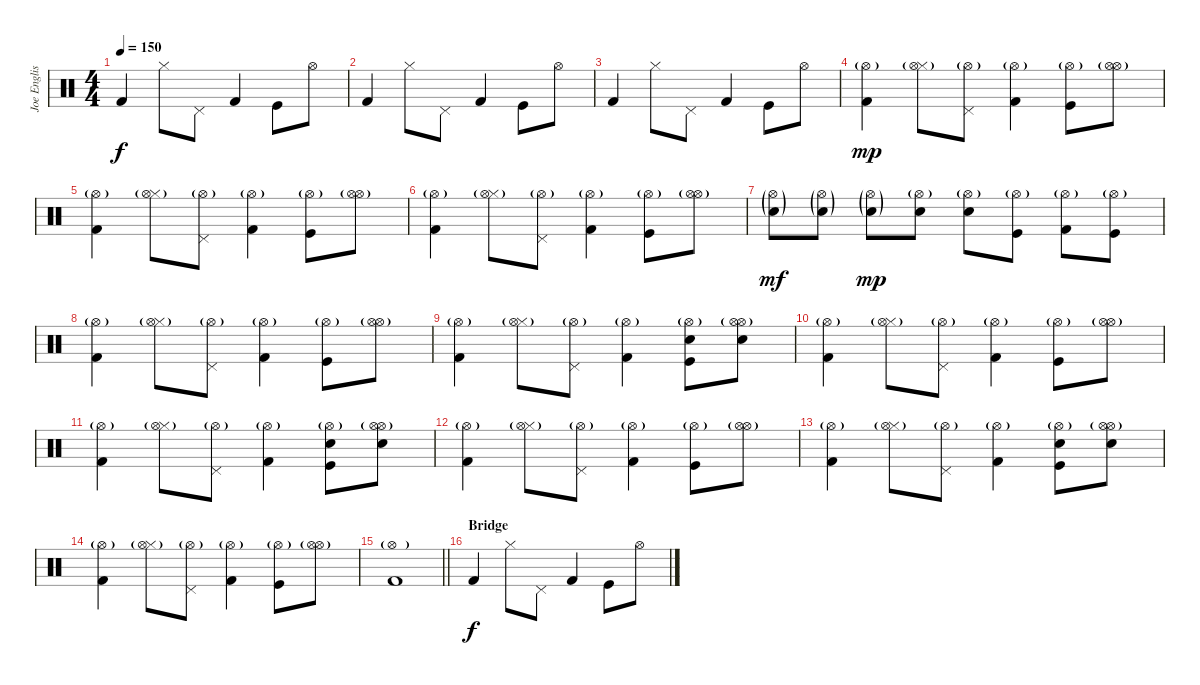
\track ("Joe English" "Joe Englis") {instrument percussion}
\staff {score}
\articulation defaults
\ts (4 4)
\tempo 150
\clef neutral
\ks c "Kick (hit) 2".4{dy f} "Hi-Hat (closed)".8 "Pedal Hi-Hat (hit)".8 "Kick (hit) 2".4 "Kick (hit)".8 "Hi-Hat (open)".8
|
"Kick (hit) 2".4 "Hi-Hat (closed)".8 "Pedal Hi-Hat (hit)".8 "Kick (hit) 2".4 "Kick (hit)".8 "Hi-Hat (open)".8 |
"Kick (hit) 2".4 "Hi-Hat (closed)".8 "Pedal Hi-Hat (hit)".8 "Kick (hit) 2".4 "Kick (hit)".8 "Hi-Hat (open)".8 |
("Kick (hit) 2" "Hi-Hat (open)"{g}).4{dy mp} ("Hi-Hat (closed)" "Hi-Hat (open)"{g}).8 ("Pedal Hi-Hat (hit)" "Hi-Hat (open)"{g}).8 ("Kick (hit) 2" "Hi-Hat (open)"{g}).4 ("Kick (hit)" "Hi-Hat (open)"{g}).8 ("Hi-Hat (open)" "Hi-Hat (open)"{g}).8 |
("Kick (hit) 2" "Hi-Hat (open)"{g}).4 ("Hi-Hat (closed)" "Hi-Hat (open)"{g}).8 ("Pedal Hi-Hat (hit)" "Hi-Hat (open)"{g}).8 ("Kick (hit) 2" "Hi-Hat (open)"{g}).4 ("Kick (hit)" "Hi-Hat (open)"{g}).8 ("Hi-Hat (open)" "Hi-Hat (open)"{g}).8 |
("Kick (hit) 2" "Hi-Hat (open)"{g}).4 ("Hi-Hat (closed)" "Hi-Hat (open)"{g}).8 ("Pedal Hi-Hat (hit)" "Hi-Hat (open)"{g}).8 ("Kick (hit) 2" "Hi-Hat (open)"{g}).4 ("Kick (hit)" "Hi-Hat (open)"{g}).8 ("Hi-Hat (open)" "Hi-Hat (open)"{g}).8 |
("Hi-Hat (open)"{g} "Snare (hit) 2"{g}).8{dy mf} ("Hi-Hat (open)"{g} "Snare (hit) 2"{g}).8 ("Hi-Hat (open)"{g} "Snare (hit) 2"{g}).8{dy mp} ("Hi-Hat (open)"{g} "Snare (hit) 2").8 ("Hi-Hat (open)"{g} "Snare (hit) 2").8 ("Hi-Hat (open)"{g} "Kick (hit)").8 ("Hi-Hat (open)"{g} "Kick (hit) 2").8 ("Hi-Hat (open)"{g} "Kick (hit)").8 |
("Kick (hit) 2" "Hi-Hat (open)"{g}).4 ("Hi-Hat (closed)" "Hi-Hat (open)"{g}).8 ("Pedal Hi-Hat (hit)" "Hi-Hat (open)"{g}).8 ("Kick (hit) 2" "Hi-Hat (open)"{g}).4 ("Kick (hit)" "Hi-Hat (open)"{g}).8 ("Hi-Hat (open)" "Hi-Hat (open)"{g}).8 |
("Kick (hit) 2" "Hi-Hat (open)"{g}).4 ("Hi-Hat (closed)" "Hi-Hat (open)"{g}).8 ("Pedal Hi-Hat (hit)" "Hi-Hat (open)"{g}).8 ("Kick (hit) 2" "Hi-Hat (open)"{g}).4 ("Snare (hit) 2" "Kick (hit)" "Hi-Hat (open)"{g}).8 ("Snare (hit) 2" "Hi-Hat (open)" "Hi-Hat (open)"{g}).8 |
("Kick (hit) 2" "Hi-Hat (open)"{g}).4 ("Hi-Hat (closed)" "Hi-Hat (open)"{g}).8 ("Pedal Hi-Hat (hit)" "Hi-Hat (open)"{g}).8 ("Kick (hit) 2" "Hi-Hat (open)"{g}).4 ("Kick (hit)" "Hi-Hat (open)"{g}).8 ("Hi-Hat (open)" "Hi-Hat (open)"{g}).8 |
("Kick (hit) 2" "Hi-Hat (open)"{g}).4 ("Hi-Hat (closed)" "Hi-Hat (open)"{g}).8 ("Pedal Hi-Hat (hit)" "Hi-Hat (open)"{g}).8 ("Kick (hit) 2" "Hi-Hat (open)"{g}).4 ("Snare (hit) 2" "Kick (hit)" "Hi-Hat (open)"{g}).8 ("Snare (hit) 2" "Hi-Hat (open)" "Hi-Hat (open)"{g}).8 |
("Kick (hit) 2" "Hi-Hat (open)"{g}).4 ("Hi-Hat (closed)" "Hi-Hat (open)"{g}).8 ("Pedal Hi-Hat (hit)" "Hi-Hat (open)"{g}).8 ("Kick (hit) 2" "Hi-Hat (open)"{g}).4 ("Kick (hit)" "Hi-Hat (open)"{g}).8 ("Hi-Hat (open)" "Hi-Hat (open)"{g}).8 |
("Kick (hit) 2" "Hi-Hat (open)"{g}).4 ("Hi-Hat (closed)" "Hi-Hat (open)"{g}).8 ("Pedal Hi-Hat (hit)" "Hi-Hat (open)"{g}).8 ("Kick (hit) 2" "Hi-Hat (open)"{g}).4 ("Snare (hit) 2" "Kick (hit)" "Hi-Hat (open)"{g}).8 ("Snare (hit) 2" "Hi-Hat (open)" "Hi-Hat (open)"{g}).8 |
("Kick (hit) 2" "Hi-Hat (open)"{g}).4 ("Hi-Hat (closed)" "Hi-Hat (open)"{g}).8 ("Pedal Hi-Hat (hit)" "Hi-Hat (open)"{g}).8 ("Kick (hit) 2" "Hi-Hat (open)"{g}).4 ("Kick (hit)" "Hi-Hat (open)"{g}).8 ("Hi-Hat (open)" "Hi-Hat (open)"{g}).8 |
\barLineRight lightlight
("Kick (hit) 2" "Hi-Hat (open)"{g}).1 |
\section ("" "Bridge")
"Kick (hit) 2".4{dy f} "Hi-Hat (closed)".8 "Pedal Hi-Hat (hit)".8 "Kick (hit) 2".4 "Kick (hit)".8 "Hi-Hat (open)".8
